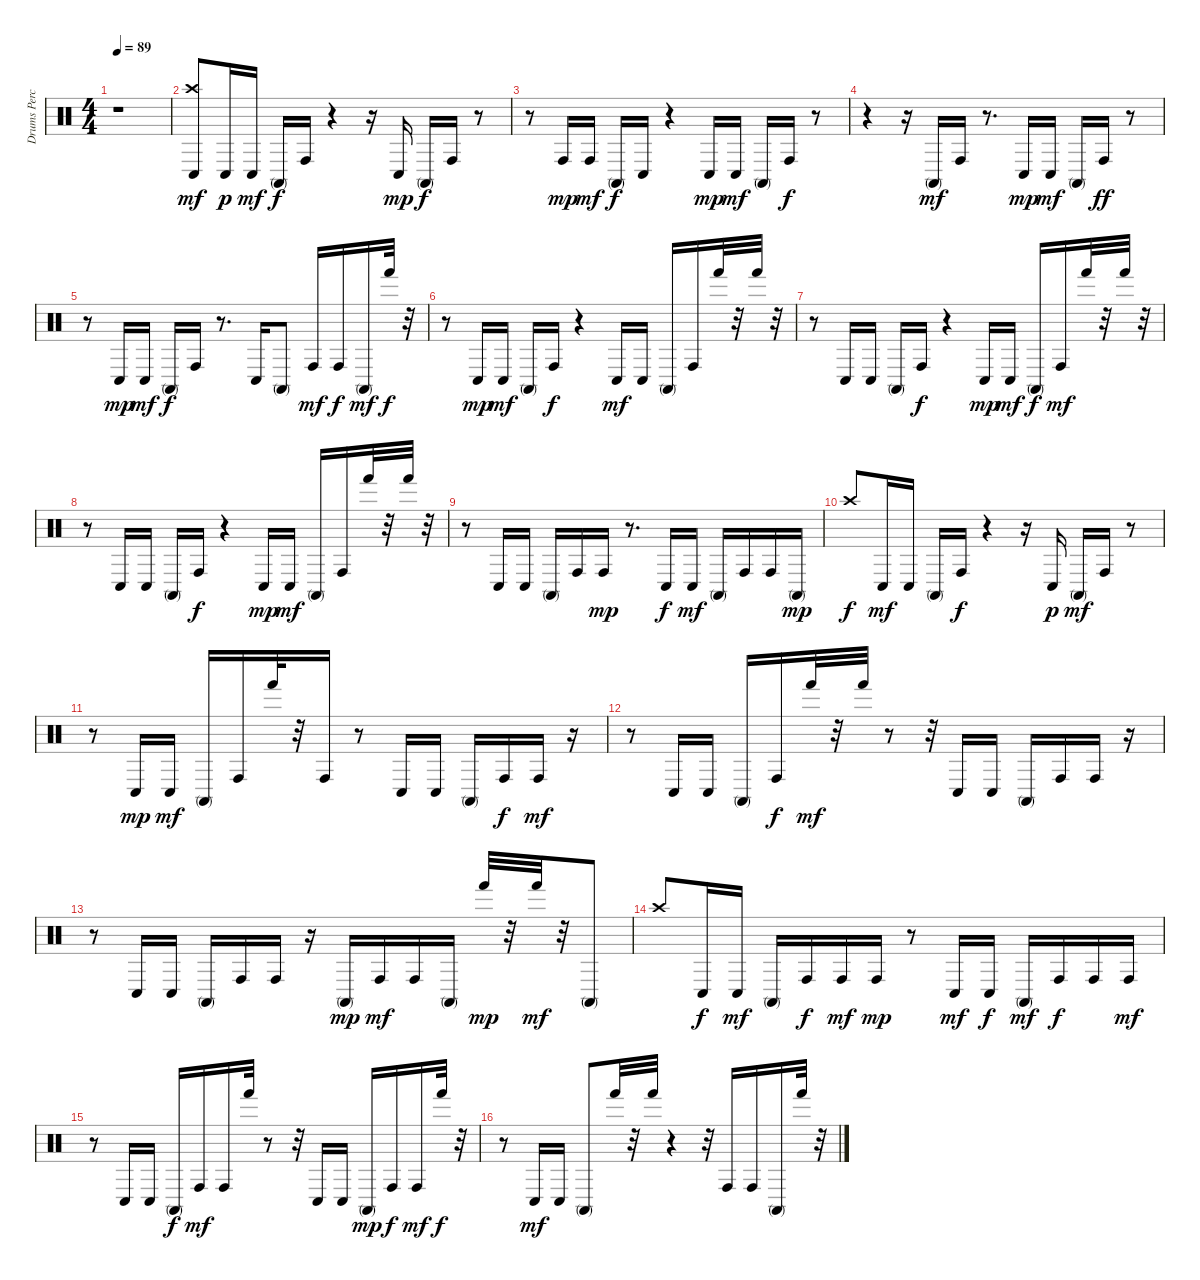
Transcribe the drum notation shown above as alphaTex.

\track ("Drums Percussion" "Drums Perc") {instrument percussion}
\staff {score}
\articulation defaults
\ts (4 4)
\tempo 89
\clef neutral
\ks c
r.1{dy mf} |
("Conga low (hit)" "Crash high (hit)").8 "Conga low (hit)".16{dy p} "Conga low (hit)".16{dy mf} "Conga high (mute)".16{dy f} "Conga high (hit)".16 r.4 r.16 "Conga low (hit)".16{dy mp} "Conga high (mute)".16{dy f} "Conga high (hit)".16 r.8 |
r.8 "Conga high (hit)".16{dy mp} "Conga high (hit)".16{dy mf} "Conga high (mute)".16{dy f} "Conga low (hit)".16 r.4 "Conga low (hit)".16{dy mp} "Conga low (hit)".16{dy mf} "Conga high (mute)".16 "Conga high (hit)".16{dy f} r.8 |
r.4 r.16 "Conga high (mute)".16{dy mf} "Conga high (hit)".16 r.8{d} "Conga low (hit)".16{dy mp} "Conga low (hit)".16{dy mf} "Conga high (mute)".16 "Conga high (hit)".16{dy ff} r.8 |
r.8 "Conga low (hit)".16{dy mp} "Conga low (hit)".16{dy mf} "Conga high (mute)".16{dy f} "Conga high (hit)".16 r.8{d} "Conga low (hit)".16 "Conga high (mute)".8 "Conga high (hit)".16{dy mf} "Conga high (hit)".16{dy f} "Conga high (mute)".16{dy mf} "Hand (hit)".32{dy f} r.32 |
r.8 "Conga low (hit)".16{dy mp} "Conga low (hit)".16{dy mf} "Conga high (mute)".16 "Conga high (hit)".16{dy f} r.4 "Conga low (hit)".16{dy mf} "Conga low (hit)".16 "Conga high (mute)".16 "Conga high (hit)".16 "Hand (hit)".32 r.32 "Hand (hit)".32 r.32 |
r.8 "Conga low (hit)".16 "Conga low (hit)".16 "Conga high (mute)".16 "Conga high (hit)".16{dy f} r.4 "Conga low (hit)".16{dy mp} "Conga low (hit)".16{dy mf} "Conga high (mute)".16{dy f} "Conga high (hit)".16{dy mf} "Hand (hit)".32 r.32 "Hand (hit)".32 r.32 |
r.8 "Conga low (hit)".16 "Conga low (hit)".16 "Conga high (mute)".16 "Conga high (hit)".16{dy f} r.4 "Conga low (hit)".16{dy mp} "Conga low (hit)".16{dy mf} "Conga high (mute)".16 "Conga high (hit)".16 "Hand (hit)".32 r.32 "Hand (hit)".32 r.32 |
r.8 "Conga low (hit)".16 "Conga low (hit)".16 "Conga high (mute)".16 "Conga high (hit)".16 "Conga high (hit)".16{dy mp} r.8{d} "Conga low (hit)".16{dy f} "Conga low (hit)".16{dy mf} "Conga high (mute)".16 "Conga high (hit)".16 "Conga high (hit)".16 "Conga high (mute)".16{dy mp} |
"Crash high (hit)".8{dy f} "Conga low (hit)".16{dy mf} "Conga low (hit)".16 "Conga high (mute)".16 "Conga high (hit)".16{dy f} r.4 r.16 "Conga low (hit)".16{dy p} "Conga high (mute)".16{dy mf} "Conga high (hit)".16 r.8 |
r.8 "Conga low (hit)".16{dy mp} "Conga low (hit)".16{dy mf} "Conga high (mute)".16 "Conga high (hit)".16 "Hand (hit)".32 r.32 "Conga high (hit)".16 r.8 "Conga low (hit)".16 "Conga low (hit)".16 "Conga high (mute)".16 "Conga high (hit)".16{dy f} "Conga high (hit)".16{dy mf} r.16 |
r.8 "Conga low (hit)".16 "Conga low (hit)".16 "Conga high (mute)".16 "Conga high (hit)".16{dy f} "Hand (hit)".32{dy mf} r.32 "Hand (hit)".32 r.8 r.32 "Conga low (hit)".16 "Conga low (hit)".16 "Conga high (mute)".16 "Conga high (hit)".16 "Conga high (hit)".16 r.16 |
r.8 "Conga low (hit)".16 "Conga low (hit)".16 "Conga high (mute)".16 "Conga high (hit)".16 "Conga high (hit)".16 r.16 "Conga high (mute)".16{dy mp} "Conga high (hit)".16{dy mf} "Conga high (hit)".16 "Conga high (mute)".16 "Hand (hit)".32{dy mp} r.32 "Hand (hit)".32{dy mf} r.32 "Conga high (mute)".8 |
"Crash high (hit)".8 "Conga low (hit)".16{dy f} "Conga low (hit)".16{dy mf} "Conga high (mute)".16 "Conga high (hit)".16{dy f} "Conga high (hit)".16{dy mf} "Conga high (hit)".16{dy mp} r.8 "Conga low (hit)".16{dy mf} "Conga low (hit)".16{dy f} "Conga high (mute)".16{dy mf} "Conga high (hit)".16{dy f} "Conga high (hit)".16 "Conga high (hit)".16{dy mf} |
r.8 "Conga low (hit)".16 "Conga low (hit)".16 "Conga high (mute)".16{dy f} "Conga high (hit)".16{dy mf} "Conga high (hit)".16 "Hand (hit)".32 r.8 r.32 "Conga low (hit)".16 "Conga low (hit)".16 "Conga high (mute)".16{dy mp} "Conga high (hit)".16{dy f} "Conga high (hit)".16{dy mf} "Hand (hit)".32{dy f} r.32 |
r.8 "Conga low (hit)".16{dy mf} "Conga low (hit)".16 "Conga high (mute)".8 "Hand (hit)".32 r.32 "Hand (hit)".32 r.4 r.32 "Conga high (hit)".16 "Conga high (hit)".16 "Conga high (mute)".16 "Hand (hit)".32 r.32
